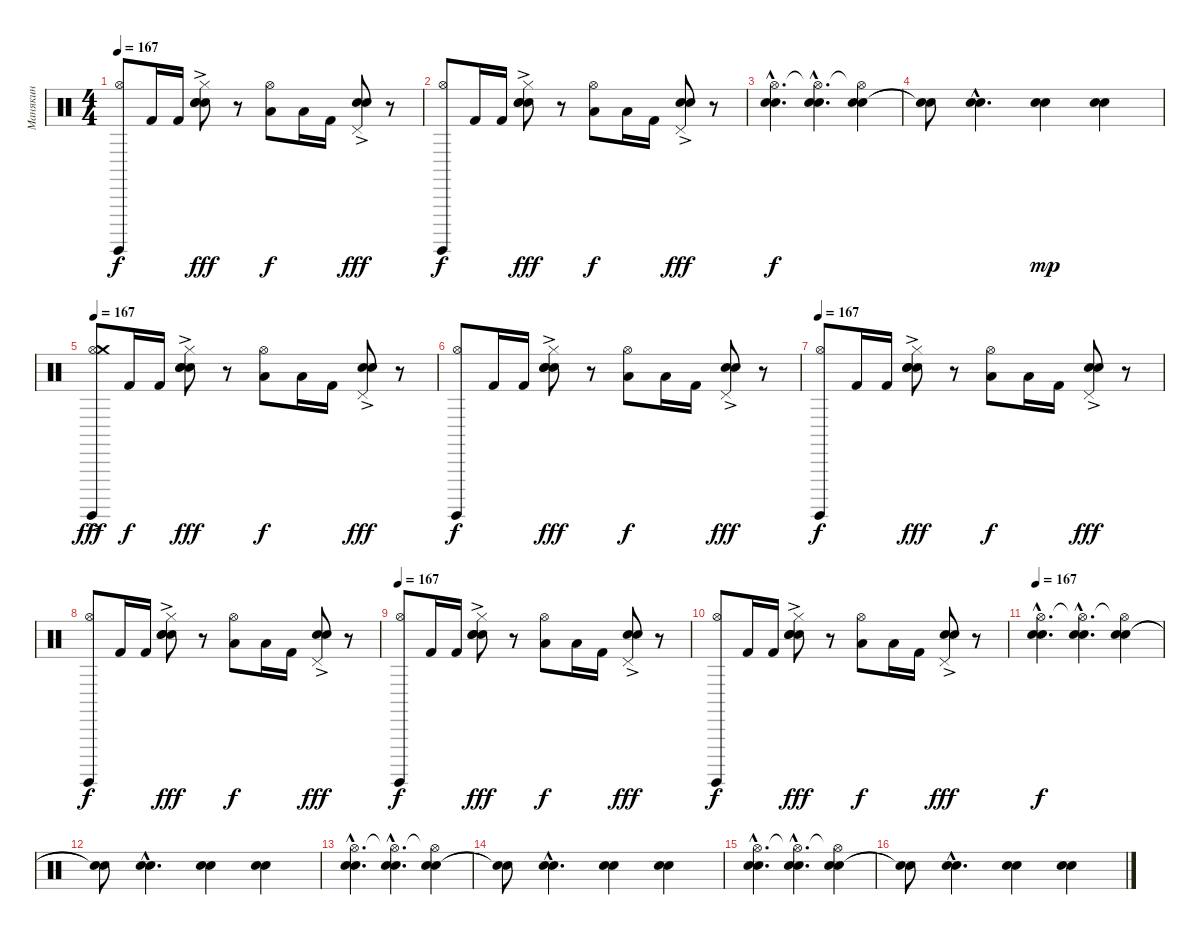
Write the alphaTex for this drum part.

\track ("Манякин" "Манякин") {instrument percussion}
\staff {score}
\articulation defaults
\ts (4 4)
\tempo 167
\clef neutral
\ks c
("Surdo (hit)" "Hi-Hat (open)").8{dy f} "Kick (hit) 2".16 "Kick (hit) 2".16 ("Hi-Hat (closed)" "Electric Snare (hit)"{ac} "Snare (hit) 2" "Electric Snare (hit)").8{dy fff} r.8 ("Low Tom (hit)" "Hi-Hat (open)").8{dy f} "Low Tom (hit)".16 "Kick (hit) 2".16 ("Electric Snare (hit)"{ac} "Snare (hit) 2" "Pedal Hi-Hat (hit)").8{dy fff} r.8 |
("Surdo (hit)" "Hi-Hat (open)").8{dy f} "Kick (hit) 2".16 "Kick (hit) 2".16 ("Hi-Hat (closed)" "Electric Snare (hit)"{ac} "Snare (hit) 2" "Electric Snare (hit)").8{dy fff} r.8 ("Low Tom (hit)" "Hi-Hat (open)").8{dy f} "Low Tom (hit)".16 "Kick (hit) 2".16 ("Electric Snare (hit)"{ac} "Snare (hit) 2" "Pedal Hi-Hat (hit)").8{dy fff} r.8 |
("Electric Snare (hit)"{hac} "Snare (hit) 2"{hac} "Hi-Hat (open)"{hac}).4{d dy f} ("Electric Snare (hit)"{hac} "Snare (hit) 2"{hac} "Hi-Hat (open)"{hac t}).4{d} ("Electric Snare (hit)" "Snare (hit) 2" "Hi-Hat (open)"{t}).4 |
("Snare (hit)"{t} "Snare (hit)"{t}).8 ("Electric Snare (hit)"{hac} "Snare (hit) 2"{hac}).4{d} ("Electric Snare (hit)" "Snare (hit) 2").4{dy mp} ("Snare (hit) 2" "Electric Snare (hit)").4 |
\tempo 167
("Surdo (hit)" "Hi-Hat (open)" "Crash medium (hit)"{ac}).8{dy fff volume 15} "Kick (hit) 2".16{dy f} "Kick (hit) 2".16 ("Hi-Hat (closed)" "Electric Snare (hit)"{ac} "Snare (hit) 2" "Electric Snare (hit)").8{dy fff} r.8 ("Low Tom (hit)" "Hi-Hat (open)").8{dy f} "Low Tom (hit)".16 "Kick (hit) 2".16 ("Electric Snare (hit)"{ac} "Snare (hit) 2" "Pedal Hi-Hat (hit)").8{dy fff} r.8 |
("Surdo (hit)" "Hi-Hat (open)").8{dy f} "Kick (hit) 2".16 "Kick (hit) 2".16 ("Hi-Hat (closed)" "Electric Snare (hit)"{ac} "Snare (hit) 2" "Electric Snare (hit)").8{dy fff} r.8 ("Low Tom (hit)" "Hi-Hat (open)").8{dy f} "Low Tom (hit)".16 "Kick (hit) 2".16 ("Electric Snare (hit)"{ac} "Snare (hit) 2" "Pedal Hi-Hat (hit)").8{dy fff} r.8 |
\tempo 167
("Surdo (hit)" "Hi-Hat (open)").8{dy f} "Kick (hit) 2".16 "Kick (hit) 2".16 ("Hi-Hat (closed)" "Electric Snare (hit)"{ac} "Snare (hit) 2" "Electric Snare (hit)").8{dy fff} r.8 ("Low Tom (hit)" "Hi-Hat (open)").8{dy f} "Low Tom (hit)".16 "Kick (hit) 2".16 ("Electric Snare (hit)"{ac} "Snare (hit) 2" "Pedal Hi-Hat (hit)").8{dy fff} r.8 |
("Surdo (hit)" "Hi-Hat (open)").8{dy f} "Kick (hit) 2".16 "Kick (hit) 2".16 ("Hi-Hat (closed)" "Electric Snare (hit)"{ac} "Snare (hit) 2" "Electric Snare (hit)").8{dy fff} r.8 ("Low Tom (hit)" "Hi-Hat (open)").8{dy f} "Low Tom (hit)".16 "Kick (hit) 2".16 ("Electric Snare (hit)"{ac} "Snare (hit) 2" "Pedal Hi-Hat (hit)").8{dy fff} r.8 |
\tempo 167
("Surdo (hit)" "Hi-Hat (open)").8{dy f} "Kick (hit) 2".16 "Kick (hit) 2".16 ("Hi-Hat (closed)" "Electric Snare (hit)"{ac} "Snare (hit) 2" "Electric Snare (hit)").8{dy fff} r.8 ("Low Tom (hit)" "Hi-Hat (open)").8{dy f} "Low Tom (hit)".16 "Kick (hit) 2".16 ("Electric Snare (hit)"{ac} "Snare (hit) 2" "Pedal Hi-Hat (hit)").8{dy fff} r.8 |
("Surdo (hit)" "Hi-Hat (open)").8{dy f} "Kick (hit) 2".16 "Kick (hit) 2".16 ("Hi-Hat (closed)" "Electric Snare (hit)"{ac} "Snare (hit) 2" "Electric Snare (hit)").8{dy fff} r.8 ("Low Tom (hit)" "Hi-Hat (open)").8{dy f} "Low Tom (hit)".16 "Kick (hit) 2".16 ("Electric Snare (hit)"{ac} "Snare (hit) 2" "Pedal Hi-Hat (hit)").8{dy fff} r.8 |
\tempo 167
("Electric Snare (hit)"{hac} "Snare (hit) 2"{hac} "Hi-Hat (open)"{hac}).4{d dy f} ("Electric Snare (hit)"{hac} "Snare (hit) 2"{hac} "Hi-Hat (open)"{hac t}).4{d} ("Electric Snare (hit)" "Snare (hit) 2" "Hi-Hat (open)"{t}).4 |
("Snare (hit)"{t} "Snare (hit)"{t}).8 ("Snare (hit) 2"{hac} "Electric Snare (hit)"{hac}).4{d} ("Snare (hit) 2" "Electric Snare (hit)").4 ("Electric Snare (hit)" "Snare (hit) 2").4 |
("Electric Snare (hit)"{hac} "Snare (hit) 2"{hac} "Hi-Hat (open)"{hac}).4{d} ("Electric Snare (hit)"{hac} "Snare (hit) 2"{hac} "Hi-Hat (open)"{hac t}).4{d} ("Electric Snare (hit)" "Snare (hit) 2" "Hi-Hat (open)"{t}).4 |
("Snare (hit)"{t} "Snare (hit)"{t}).8 ("Snare (hit) 2"{hac} "Electric Snare (hit)"{hac}).4{d} ("Snare (hit) 2" "Electric Snare (hit)").4 ("Electric Snare (hit)" "Snare (hit) 2").4 |
("Electric Snare (hit)"{hac} "Snare (hit) 2"{hac} "Hi-Hat (open)"{hac}).4{d} ("Electric Snare (hit)"{hac} "Snare (hit) 2"{hac} "Hi-Hat (open)"{hac t}).4{d} ("Electric Snare (hit)" "Snare (hit) 2" "Hi-Hat (open)"{t}).4 |
("Snare (hit)"{t} "Snare (hit)"{t}).8 ("Snare (hit) 2"{hac} "Electric Snare (hit)"{hac}).4{d} ("Snare (hit) 2" "Electric Snare (hit)").4 ("Electric Snare (hit)" "Snare (hit) 2").4
